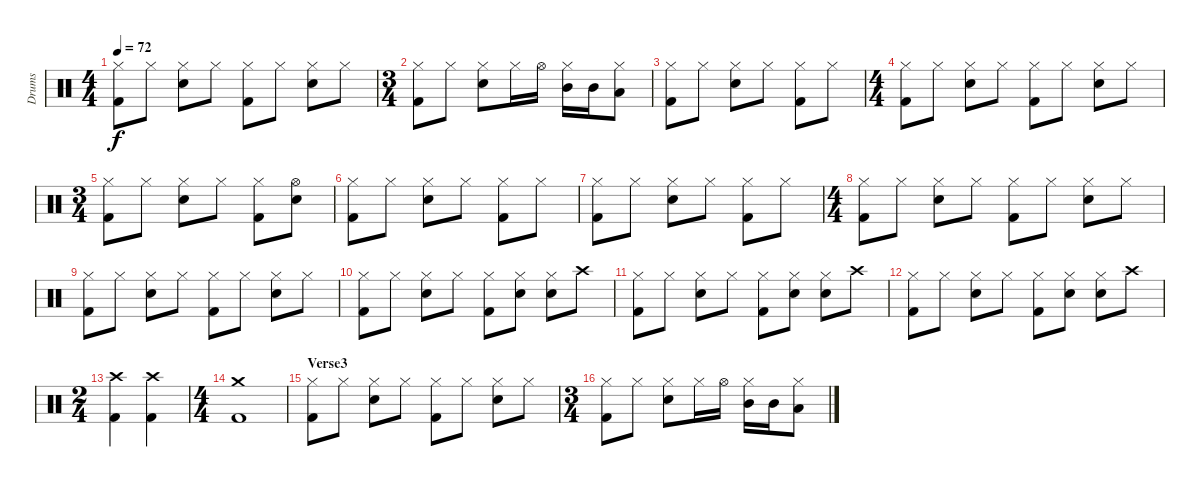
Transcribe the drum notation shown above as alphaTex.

\track ("Drums" "Drums") {instrument percussion}
\staff {score}
\articulation defaults
\ts (4 4)
\tempo 72
\clef neutral
\ks c
("Hi-Hat (closed)" "Kick (hit) 2").8{dy f} "Hi-Hat (closed)".8 ("Hi-Hat (closed)" "Electric Snare (hit)").8 "Hi-Hat (closed)".8 ("Hi-Hat (closed)" "Kick (hit) 2").8 "Hi-Hat (closed)".8 ("Hi-Hat (closed)" "Electric Snare (hit)").8 "Hi-Hat (closed)".8 |
\ts (3 4)
("Hi-Hat (closed)" "Kick (hit) 2").8 "Hi-Hat (closed)".8 ("Hi-Hat (closed)" "Electric Snare (hit)").8 "Hi-Hat (closed)".16 "Hi-Hat (open)".16 ("Hi-Hat (closed)" "Mid Tom (hit)").16 "Mid Tom (hit)".16 ("Hi-Hat (closed)" "Low Tom (hit)").8 |
("Hi-Hat (closed)" "Kick (hit) 2").8 "Hi-Hat (closed)".8 ("Hi-Hat (closed)" "Electric Snare (hit)").8 "Hi-Hat (closed)".8 ("Hi-Hat (closed)" "Kick (hit) 2").8 "Hi-Hat (closed)".8 |
\ts (4 4)
("Hi-Hat (closed)" "Kick (hit) 2").8 "Hi-Hat (closed)".8 ("Hi-Hat (closed)" "Electric Snare (hit)").8 "Hi-Hat (closed)".8 ("Hi-Hat (closed)" "Kick (hit) 2").8 "Hi-Hat (closed)".8 ("Hi-Hat (closed)" "Electric Snare (hit)").8 "Hi-Hat (closed)".8 |
\ts (3 4)
("Hi-Hat (closed)" "Kick (hit) 2").8 "Hi-Hat (closed)".8 ("Hi-Hat (closed)" "Electric Snare (hit)").8 "Hi-Hat (closed)".8 ("Hi-Hat (closed)" "Kick (hit) 2").8 ("Hi-Hat (open)" "Electric Snare (hit)").8 |
("Hi-Hat (closed)" "Kick (hit) 2").8 "Hi-Hat (closed)".8 ("Hi-Hat (closed)" "Electric Snare (hit)").8 "Hi-Hat (closed)".8 ("Hi-Hat (closed)" "Kick (hit) 2").8 "Hi-Hat (closed)".8 |
("Hi-Hat (closed)" "Kick (hit) 2").8 "Hi-Hat (closed)".8 ("Hi-Hat (closed)" "Electric Snare (hit)").8 "Hi-Hat (closed)".8 ("Hi-Hat (closed)" "Kick (hit) 2").8 "Hi-Hat (closed)".8 |
\ts (4 4)
("Hi-Hat (closed)" "Kick (hit) 2").8 "Hi-Hat (closed)".8 ("Hi-Hat (closed)" "Electric Snare (hit)").8 "Hi-Hat (closed)".8 ("Hi-Hat (closed)" "Kick (hit) 2").8 "Hi-Hat (closed)".8 ("Hi-Hat (closed)" "Electric Snare (hit)").8 "Hi-Hat (closed)".8 |
("Hi-Hat (closed)" "Kick (hit) 2").8 "Hi-Hat (closed)".8 ("Hi-Hat (closed)" "Electric Snare (hit)").8 "Hi-Hat (closed)".8 ("Hi-Hat (closed)" "Kick (hit) 2").8 "Hi-Hat (closed)".8 ("Hi-Hat (closed)" "Electric Snare (hit)").8 "Hi-Hat (closed)".8 |
("Hi-Hat (closed)" "Kick (hit) 2").8 "Hi-Hat (closed)".8 ("Hi-Hat (closed)" "Electric Snare (hit)").8 "Hi-Hat (closed)".8 ("Hi-Hat (closed)" "Kick (hit) 2").8 ("Hi-Hat (closed)" "Electric Snare (hit)").8 ("Hi-Hat (closed)" "Electric Snare (hit)").8 "Crash high (hit)".8 |
("Hi-Hat (closed)" "Kick (hit) 2").8 "Hi-Hat (closed)".8 ("Hi-Hat (closed)" "Electric Snare (hit)").8 "Hi-Hat (closed)".8 ("Hi-Hat (closed)" "Kick (hit) 2").8 ("Hi-Hat (closed)" "Electric Snare (hit)").8 ("Hi-Hat (closed)" "Electric Snare (hit)").8 "Crash high (hit)".8 |
("Hi-Hat (closed)" "Kick (hit) 2").8 "Hi-Hat (closed)".8 ("Hi-Hat (closed)" "Electric Snare (hit)").8 "Hi-Hat (closed)".8 ("Hi-Hat (closed)" "Kick (hit) 2").8 ("Hi-Hat (closed)" "Electric Snare (hit)").8 ("Hi-Hat (closed)" "Electric Snare (hit)").8 "Crash high (hit)".8 |
\ts (2 4)
("Crash high (hit)" "Kick (hit) 2").4 ("Crash high (hit)" "Kick (hit) 2").4 |
\ts (4 4)
("Crash medium (hit)" "Kick (hit) 2").1 |
\section ("" "Verse3")
("Hi-Hat (closed)" "Kick (hit) 2").8 "Hi-Hat (closed)".8 ("Hi-Hat (closed)" "Electric Snare (hit)").8 "Hi-Hat (closed)".8 ("Hi-Hat (closed)" "Kick (hit) 2").8 "Hi-Hat (closed)".8 ("Hi-Hat (closed)" "Electric Snare (hit)").8 "Hi-Hat (closed)".8 |
\ts (3 4)
("Hi-Hat (closed)" "Kick (hit) 2").8 "Hi-Hat (closed)".8 ("Hi-Hat (closed)" "Electric Snare (hit)").8 "Hi-Hat (closed)".16 "Hi-Hat (open)".16 ("Hi-Hat (closed)" "Mid Tom (hit)").16 "Mid Tom (hit)".16 ("Hi-Hat (closed)" "Low Tom (hit)").8
